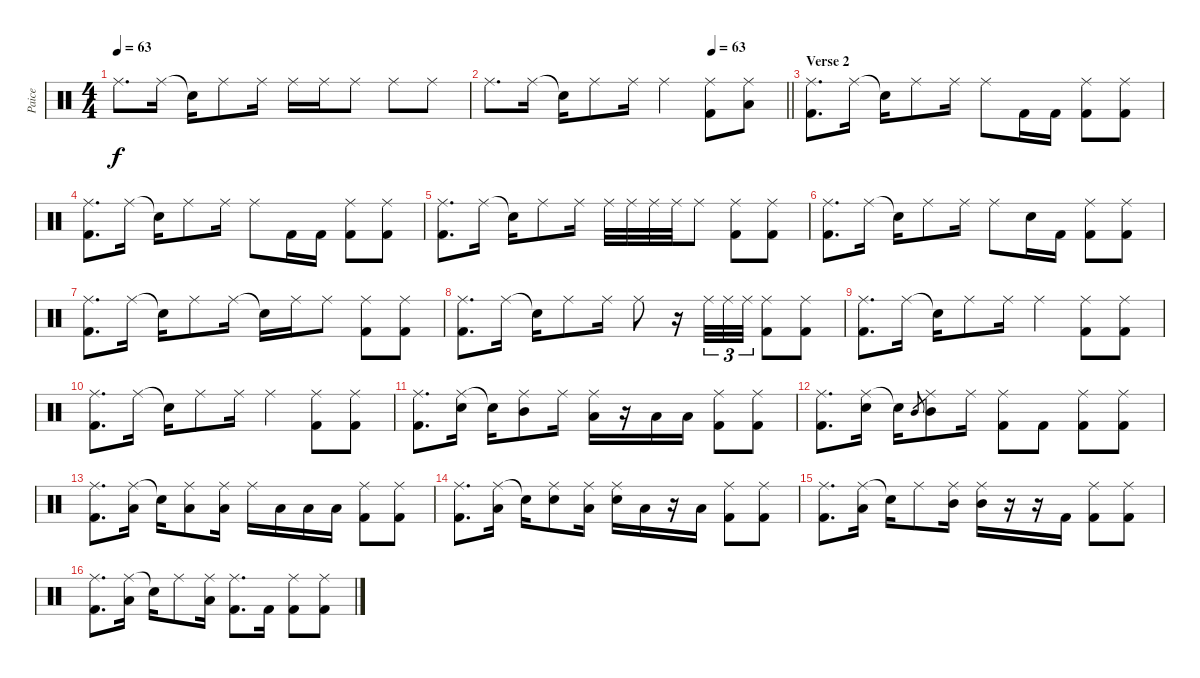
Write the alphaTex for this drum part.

\track ("Paice" "Paice") {instrument percussion}
\staff {score}
\articulation defaults
\ts (4 4)
\tempo 63
\clef neutral
\ks c "Ride (middle)".8{d dy f} "Ride (middle)".16 "Snare (hit)"{t}.16 "Ride (middle)".8 "Ride (middle)".16 "Ride (middle)".16 "Ride (middle)".16 "Ride (middle)".8 "Ride (middle)".8 "Ride (middle)".8
|
\tempo (63 0.75)
\barLineRight lightlight "Ride (middle)".8{d} "Ride (middle)".16 "Snare (hit)"{t}.16 "Ride (middle)".8 "Ride (middle)".16 "Ride (middle)".4
("Ride (middle)" "Kick (hit) 2").8 ("Ride (middle)" "Low Floor Tom (hit)").8 |
\section ("" "Verse 2")
("Ride (middle)" "Kick (hit) 2").8{d} "Ride (middle)".16 "Snare (hit)"{t}.16 "Ride (middle)".8 "Ride (middle)".16 "Ride (middle)".8 "Kick (hit) 2"{x}.16 "Kick (hit) 2".16 ("Ride (middle)" "Kick (hit) 2").8 ("Ride (middle)" "Kick (hit) 2").8 |
("Ride (middle)" "Kick (hit) 2").8{d} "Ride (middle)".16 "Snare (hit)"{t}.16 "Ride (middle)".8 "Ride (middle)".16 "Ride (middle)".8 "Kick (hit) 2"{x}.16 "Kick (hit) 2".16 ("Ride (middle)" "Kick (hit) 2").8 ("Ride (middle)" "Kick (hit) 2").8 |
("Ride (middle)" "Kick (hit) 2").8{d} "Ride (middle)".16 "Snare (hit)"{t}.16 "Ride (middle)".8 "Ride (middle)".16 "Ride (middle)".32 "Ride (middle)".32 "Ride (middle)".32 "Ride (middle)".32 "Ride (middle)".8 ("Ride (middle)" "Kick (hit) 2").8 ("Ride (middle)" "Kick (hit) 2").8 |
("Ride (middle)" "Kick (hit) 2").8{d} "Ride (middle)".16 "Snare (hit)"{t}.16 "Ride (middle)".8 "Ride (middle)".16 "Ride (middle)".8 "Snare (hit)"{x}.16 "Kick (hit) 2".16 ("Ride (middle)" "Kick (hit) 2").8 ("Ride (middle)" "Kick (hit) 2").8 |
("Ride (middle)" "Kick (hit) 2").8{d} "Ride (middle)".16 "Snare (hit)"{t}.16 "Ride (middle)".8 "Ride (middle)".16 "Snare (hit)"{t}.16 "Ride (middle)".16 "Ride (middle)".8 ("Ride (middle)" "Kick (hit) 2").8 ("Ride (middle)" "Kick (hit) 2").8 |
("Ride (middle)" "Kick (hit) 2").8{d} "Ride (middle)".16 "Snare (hit)"{t}.16 "Ride (middle)".8 "Ride (middle)".16 "Ride (middle)".8 r.16 "Ride (middle)".32{tu (3 2)} "Ride (middle)".32{tu (3 2)} "Ride (middle)".32{tu (3 2)} ("Ride (middle)" "Kick (hit) 2").8 ("Ride (middle)" "Kick (hit) 2").8 |
("Ride (middle)" "Kick (hit) 2").8{d} "Ride (middle)".16 "Snare (hit)"{t}.16 "Ride (middle)".8 "Ride (middle)".16 "Ride (middle)".4 ("Ride (middle)" "Kick (hit) 2").8 ("Ride (middle)" "Kick (hit) 2").8 |
("Ride (middle)" "Kick (hit) 2").8{d} "Ride (middle)".16 "Snare (hit)"{t}.16 "Ride (middle)".8 "Ride (middle)".16 "Ride (middle)".4 ("Ride (middle)" "Kick (hit) 2").8 ("Ride (middle)" "Kick (hit) 2").8 |
("Ride (middle)" "Kick (hit) 2").8{d} ("Ride (middle)" "Electric Snare (hit)").16 "Snare (hit)"{t}.16 ("Ride (middle)" "Mid Tom (hit)").8 "Ride (middle)".16 ("Ride (middle)" "Low Tom (hit)").16 r.16 "Low Tom (hit)".16 "Low Tom (hit)".16 ("Ride (middle)" "Kick (hit) 2").8 ("Ride (middle)" "Kick (hit) 2").8 |
("Ride (middle)" "Kick (hit) 2").8{d} ("Ride (middle)" "Electric Snare (hit)").16 "Snare (hit)"{t}.16 "Mid Tom (hit)".8{gr} ("Ride (middle)" "Mid Tom (hit)").8 "Ride (middle)".16 ("Ride (middle)" "Kick (hit) 2").8 "Kick (hit) 2".8 ("Ride (middle)" "Kick (hit) 2").8 ("Ride (middle)" "Kick (hit) 2").8 |
("Ride (middle)" "Kick (hit) 2").8{d} ("Ride (middle)" "Low Tom (hit)").16 "Snare (hit)"{t}.16 ("Ride (middle)" "Low Tom (hit)").8 ("Ride (middle)" "Low Tom (hit)").16 "Ride (middle)".16 "Low Tom (hit)".16 "Low Tom (hit)".16 "Low Tom (hit)".16 ("Ride (middle)" "Kick (hit) 2").8 ("Ride (middle)" "Kick (hit) 2").8 |
("Ride (middle)" "Kick (hit) 2").8{d} ("Ride (middle)" "Low Tom (hit)").16 "Snare (hit)"{t}.16 ("Ride (middle)" "Electric Snare (hit)").8 ("Ride (middle)" "Low Floor Tom (hit)").16 ("Ride (middle)" "Electric Snare (hit)").16 "Low Tom (hit)".16 r.16 "Low Tom (hit)".16 ("Ride (middle)" "Kick (hit) 2").8 ("Ride (middle)" "Kick (hit) 2").8 |
("Ride (middle)" "Kick (hit) 2").8{d} ("Ride (middle)" "Low Tom (hit)").16 "Snare (hit)"{t}.16 "Ride (middle)".8 ("Ride (middle)" "Mid Tom (hit)").16 ("Ride (middle)" "Mid Tom (hit)").16 r.16 r.16 "Kick (hit) 2".16 ("Ride (middle)" "Kick (hit) 2").8 ("Ride (middle)" "Kick (hit) 2").8 |
("Ride (middle)" "Kick (hit) 2").8{d} ("Ride (middle)" "Low Tom (hit)").16 "Snare (hit)"{t}.16 "Ride (middle)".8 ("Ride (middle)" "Low Tom (hit)").16 ("Ride (middle)" "Kick (hit) 2").8{d} "Kick (hit) 2".16 ("Ride (middle)" "Kick (hit) 2").8 ("Ride (middle)" "Kick (hit) 2").8
